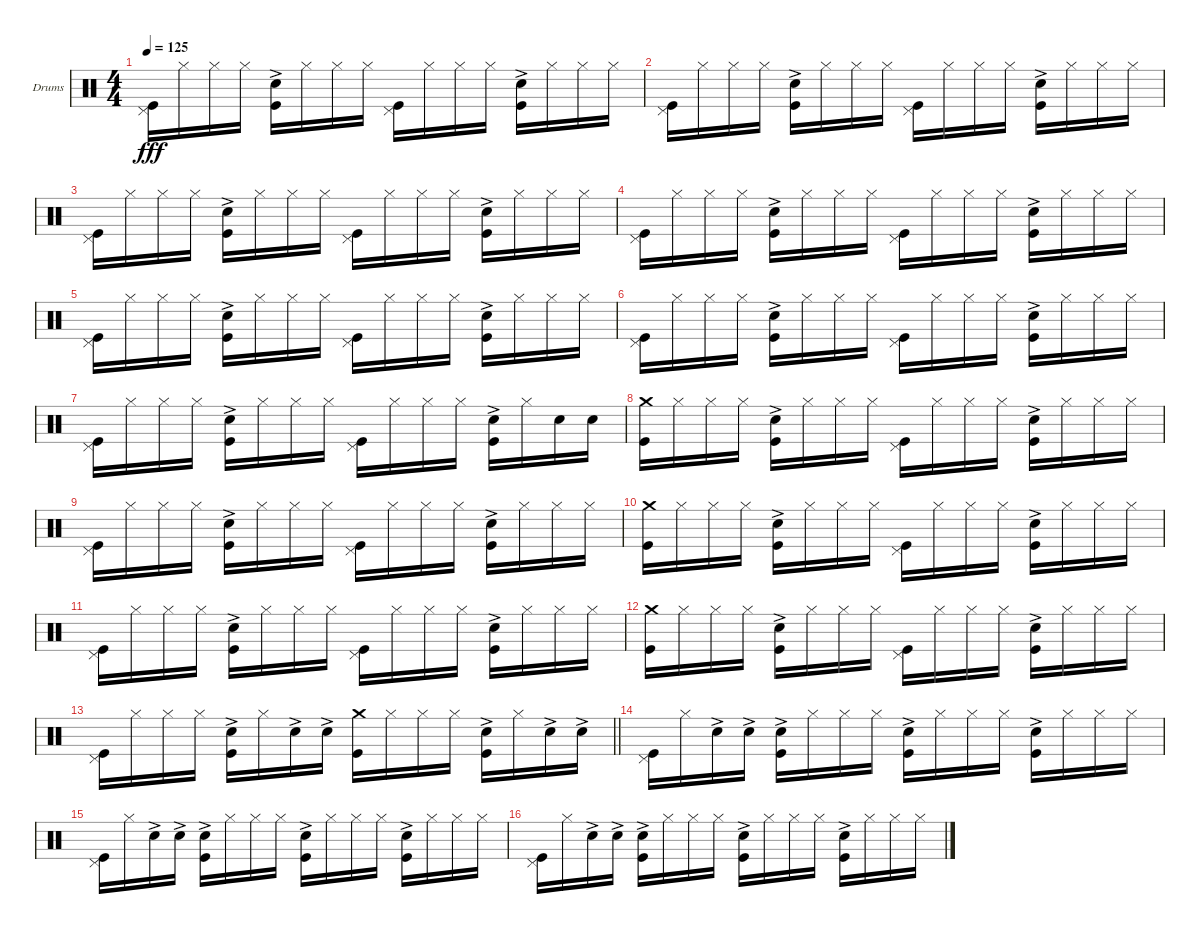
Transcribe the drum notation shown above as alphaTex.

\bracketExtendMode groupsimilarinstruments
\firstSystemTrackNameOrientation horizontal
\otherSystemsTrackNameOrientation horizontal
\track ("Ударники Григорий Гурьянов" "Drums") {instrument percussion}
\staff {score}
\articulation defaults
\ts (4 4)
\tempo 125
\clef neutral
\ks c
("Pedal Hi-Hat (hit)" "Kick (hit)").16{dy fff} "Hi-Hat (closed)".16 "Hi-Hat (closed)".16 "Hi-Hat (closed)".16 ("Snare (hit) 2"{ac} "Kick (hit)").16 "Hi-Hat (closed)".16 "Hi-Hat (closed)".16 "Hi-Hat (closed)".16 ("Pedal Hi-Hat (hit)" "Kick (hit)").16 "Hi-Hat (closed)".16 "Hi-Hat (closed)".16 "Hi-Hat (closed)".16 ("Snare (hit) 2"{ac} "Kick (hit)").16 "Hi-Hat (closed)".16 "Hi-Hat (closed)".16 "Hi-Hat (closed)".16 |
("Pedal Hi-Hat (hit)" "Kick (hit)").16 "Hi-Hat (closed)".16 "Hi-Hat (closed)".16 "Hi-Hat (closed)".16 ("Snare (hit) 2"{ac} "Kick (hit)").16 "Hi-Hat (closed)".16 "Hi-Hat (closed)".16 "Hi-Hat (closed)".16 ("Pedal Hi-Hat (hit)" "Kick (hit)").16 "Hi-Hat (closed)".16 "Hi-Hat (closed)".16 "Hi-Hat (closed)".16 ("Snare (hit) 2"{ac} "Kick (hit)").16 "Hi-Hat (closed)".16 "Hi-Hat (closed)".16 "Hi-Hat (closed)".16 |
("Pedal Hi-Hat (hit)" "Kick (hit)").16 "Hi-Hat (closed)".16 "Hi-Hat (closed)".16 "Hi-Hat (closed)".16 ("Snare (hit) 2"{ac} "Kick (hit)").16 "Hi-Hat (closed)".16 "Hi-Hat (closed)".16 "Hi-Hat (closed)".16 ("Pedal Hi-Hat (hit)" "Kick (hit)").16 "Hi-Hat (closed)".16 "Hi-Hat (closed)".16 "Hi-Hat (closed)".16 ("Snare (hit) 2"{ac} "Kick (hit)").16 "Hi-Hat (closed)".16 "Hi-Hat (closed)".16 "Hi-Hat (closed)".16 |
("Pedal Hi-Hat (hit)" "Kick (hit)").16 "Hi-Hat (closed)".16 "Hi-Hat (closed)".16 "Hi-Hat (closed)".16 ("Snare (hit) 2"{ac} "Kick (hit)").16 "Hi-Hat (closed)".16 "Hi-Hat (closed)".16 "Hi-Hat (closed)".16 ("Pedal Hi-Hat (hit)" "Kick (hit)").16 "Hi-Hat (closed)".16 "Hi-Hat (closed)".16 "Hi-Hat (closed)".16 ("Snare (hit) 2"{ac} "Kick (hit)").16 "Hi-Hat (closed)".16 "Hi-Hat (closed)".16 "Hi-Hat (closed)".16 |
("Pedal Hi-Hat (hit)" "Kick (hit)").16 "Hi-Hat (closed)".16 "Hi-Hat (closed)".16 "Hi-Hat (closed)".16 ("Snare (hit) 2"{ac} "Kick (hit)").16 "Hi-Hat (closed)".16 "Hi-Hat (closed)".16 "Hi-Hat (closed)".16 ("Pedal Hi-Hat (hit)" "Kick (hit)").16 "Hi-Hat (closed)".16 "Hi-Hat (closed)".16 "Hi-Hat (closed)".16 ("Snare (hit) 2"{ac} "Kick (hit)").16 "Hi-Hat (closed)".16 "Hi-Hat (closed)".16 "Hi-Hat (closed)".16 |
("Pedal Hi-Hat (hit)" "Kick (hit)").16 "Hi-Hat (closed)".16 "Hi-Hat (closed)".16 "Hi-Hat (closed)".16 ("Snare (hit) 2"{ac} "Kick (hit)").16 "Hi-Hat (closed)".16 "Hi-Hat (closed)".16 "Hi-Hat (closed)".16 ("Pedal Hi-Hat (hit)" "Kick (hit)").16 "Hi-Hat (closed)".16 "Hi-Hat (closed)".16 "Hi-Hat (closed)".16 ("Snare (hit) 2"{ac} "Kick (hit)").16 "Hi-Hat (closed)".16 "Hi-Hat (closed)".16 "Hi-Hat (closed)".16 |
("Pedal Hi-Hat (hit)" "Kick (hit)").16 "Hi-Hat (closed)".16 "Hi-Hat (closed)".16 "Hi-Hat (closed)".16 ("Snare (hit) 2"{ac} "Kick (hit)").16 "Hi-Hat (closed)".16 "Hi-Hat (closed)".16 "Hi-Hat (closed)".16 ("Pedal Hi-Hat (hit)" "Kick (hit)").16 "Hi-Hat (closed)".16 "Hi-Hat (closed)".16 "Hi-Hat (closed)".16 ("Snare (hit) 2"{ac} "Kick (hit)").16 "Hi-Hat (closed)".16 "Snare (hit) 2".16 "Snare (hit) 2".16 |
("Crash medium (hit)" "Kick (hit)").16 "Hi-Hat (closed)".16 "Hi-Hat (closed)".16 "Hi-Hat (closed)".16 ("Snare (hit) 2"{ac} "Kick (hit)").16 "Hi-Hat (closed)".16 "Hi-Hat (closed)".16 "Hi-Hat (closed)".16 ("Pedal Hi-Hat (hit)" "Kick (hit)").16 "Hi-Hat (closed)".16 "Hi-Hat (closed)".16 "Hi-Hat (closed)".16 ("Snare (hit) 2"{ac} "Kick (hit)").16 "Hi-Hat (closed)".16 "Hi-Hat (closed)".16 "Hi-Hat (closed)".16 |
("Pedal Hi-Hat (hit)" "Kick (hit)").16 "Hi-Hat (closed)".16 "Hi-Hat (closed)".16 "Hi-Hat (closed)".16 ("Snare (hit) 2"{ac} "Kick (hit)").16 "Hi-Hat (closed)".16 "Hi-Hat (closed)".16 "Hi-Hat (closed)".16 ("Pedal Hi-Hat (hit)" "Kick (hit)").16 "Hi-Hat (closed)".16 "Hi-Hat (closed)".16 "Hi-Hat (closed)".16 ("Snare (hit) 2"{ac} "Kick (hit)").16 "Hi-Hat (closed)".16 "Hi-Hat (closed)".16 "Hi-Hat (closed)".16 |
("Crash medium (hit)" "Kick (hit)").16 "Hi-Hat (closed)".16 "Hi-Hat (closed)".16 "Hi-Hat (closed)".16 ("Snare (hit) 2"{ac} "Kick (hit)").16 "Hi-Hat (closed)".16 "Hi-Hat (closed)".16 "Hi-Hat (closed)".16 ("Pedal Hi-Hat (hit)" "Kick (hit)").16 "Hi-Hat (closed)".16 "Hi-Hat (closed)".16 "Hi-Hat (closed)".16 ("Snare (hit) 2"{ac} "Kick (hit)").16 "Hi-Hat (closed)".16 "Hi-Hat (closed)".16 "Hi-Hat (closed)".16 |
("Pedal Hi-Hat (hit)" "Kick (hit)").16 "Hi-Hat (closed)".16 "Hi-Hat (closed)".16 "Hi-Hat (closed)".16 ("Snare (hit) 2"{ac} "Kick (hit)").16 "Hi-Hat (closed)".16 "Hi-Hat (closed)".16 "Hi-Hat (closed)".16 ("Pedal Hi-Hat (hit)" "Kick (hit)").16 "Hi-Hat (closed)".16 "Hi-Hat (closed)".16 "Hi-Hat (closed)".16 ("Snare (hit) 2"{ac} "Kick (hit)").16 "Hi-Hat (closed)".16 "Hi-Hat (closed)".16 "Hi-Hat (closed)".16 |
("Crash medium (hit)" "Kick (hit)").16 "Hi-Hat (closed)".16 "Hi-Hat (closed)".16 "Hi-Hat (closed)".16 ("Snare (hit) 2"{ac} "Kick (hit)").16 "Hi-Hat (closed)".16 "Hi-Hat (closed)".16 "Hi-Hat (closed)".16 ("Pedal Hi-Hat (hit)" "Kick (hit)").16 "Hi-Hat (closed)".16 "Hi-Hat (closed)".16 "Hi-Hat (closed)".16 ("Snare (hit) 2"{ac} "Kick (hit)").16 "Hi-Hat (closed)".16 "Hi-Hat (closed)".16 "Hi-Hat (closed)".16 |
\barLineRight lightlight
("Pedal Hi-Hat (hit)" "Kick (hit)").16 "Hi-Hat (closed)".16 "Hi-Hat (closed)".16 "Hi-Hat (closed)".16 ("Snare (hit) 2"{ac} "Kick (hit)").16 "Hi-Hat (closed)".16 "Snare (hit) 2"{ac}.16 "Snare (hit) 2"{ac}.16 ("Crash medium (hit)" "Kick (hit)").16 "Hi-Hat (closed)".16 "Hi-Hat (closed)".16 "Hi-Hat (closed)".16 ("Snare (hit) 2"{ac} "Kick (hit)").16 "Hi-Hat (closed)".16 "Snare (hit) 2"{ac}.16 "Snare (hit) 2"{ac}.16 |
("Pedal Hi-Hat (hit)" "Kick (hit)").16 "Hi-Hat (closed)".16 "Snare (hit) 2"{ac}.16 "Snare (hit) 2"{ac}.16 ("Snare (hit) 2"{ac} "Kick (hit)").16 "Hi-Hat (closed)".16 "Hi-Hat (closed)".16 "Hi-Hat (closed)".16 ("Snare (hit) 2"{ac} "Kick (hit)").16 "Hi-Hat (closed)".16 "Hi-Hat (closed)".16 "Hi-Hat (closed)".16 ("Snare (hit) 2"{ac} "Kick (hit)").16 "Hi-Hat (closed)".16 "Hi-Hat (closed)".16 "Hi-Hat (closed)".16 |
("Pedal Hi-Hat (hit)" "Kick (hit)").16 "Hi-Hat (closed)".16 "Snare (hit) 2"{ac}.16 "Snare (hit) 2"{ac}.16 ("Snare (hit) 2"{ac} "Kick (hit)").16 "Hi-Hat (closed)".16 "Hi-Hat (closed)".16 "Hi-Hat (closed)".16 ("Snare (hit) 2"{ac} "Kick (hit)").16 "Hi-Hat (closed)".16 "Hi-Hat (closed)".16 "Hi-Hat (closed)".16 ("Snare (hit) 2"{ac} "Kick (hit)").16 "Hi-Hat (closed)".16 "Hi-Hat (closed)".16 "Hi-Hat (closed)".16 |
("Pedal Hi-Hat (hit)" "Kick (hit)").16 "Hi-Hat (closed)".16 "Snare (hit) 2"{ac}.16 "Snare (hit) 2"{ac}.16 ("Snare (hit) 2"{ac} "Kick (hit)").16 "Hi-Hat (closed)".16 "Hi-Hat (closed)".16 "Hi-Hat (closed)".16 ("Snare (hit) 2"{ac} "Kick (hit)").16 "Hi-Hat (closed)".16 "Hi-Hat (closed)".16 "Hi-Hat (closed)".16 ("Snare (hit) 2"{ac} "Kick (hit)").16 "Hi-Hat (closed)".16 "Hi-Hat (closed)".16 "Hi-Hat (closed)".16
